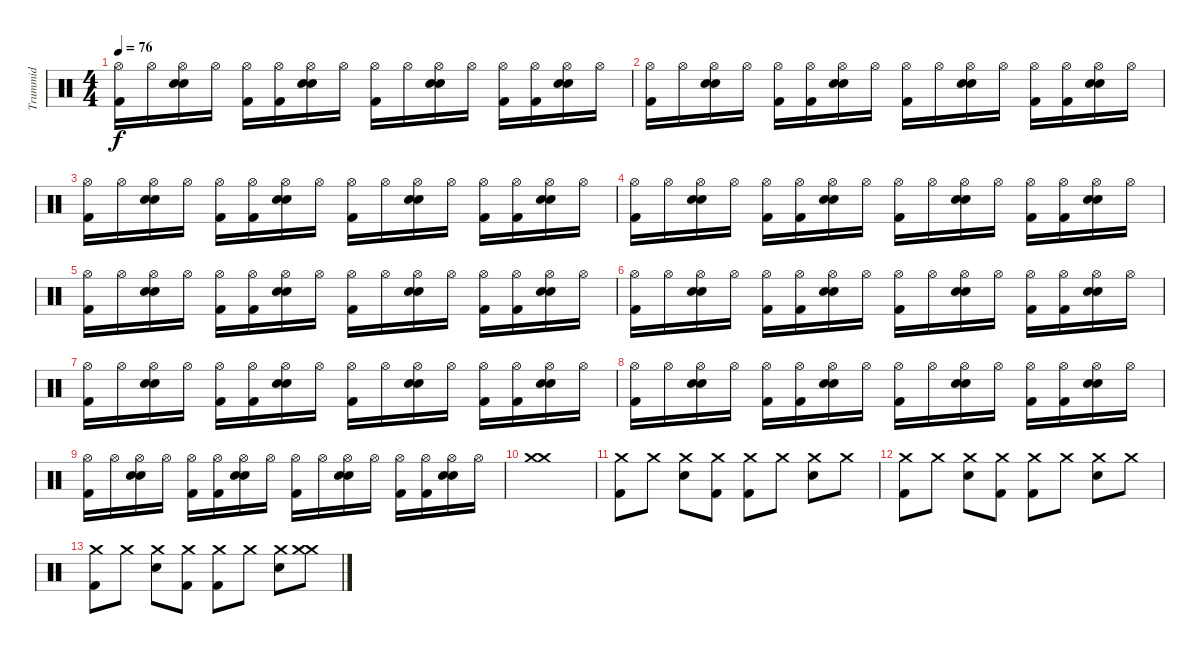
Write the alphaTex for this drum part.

\track ("Trummid" "Trummid") {instrument percussion}
\staff {score}
\articulation defaults
\ts (4 4)
\tempo 76
\clef neutral
\ks c
("Hi-Hat (open)" "Kick (hit) 2").16{dy f} "Hi-Hat (open)".16 ("Hi-Hat (open)" "Electric Snare (hit)" "Snare (hit) 2").16 "Hi-Hat (open)".16 ("Hi-Hat (open)" "Kick (hit) 2").16 ("Hi-Hat (open)" "Kick (hit) 2").16 ("Hi-Hat (open)" "Electric Snare (hit)" "Snare (hit) 2").16 "Hi-Hat (open)".16 ("Hi-Hat (open)" "Kick (hit) 2").16 "Hi-Hat (open)".16 ("Hi-Hat (open)" "Electric Snare (hit)" "Snare (hit) 2").16 "Hi-Hat (open)".16 ("Hi-Hat (open)" "Kick (hit) 2").16 ("Hi-Hat (open)" "Kick (hit) 2").16 ("Hi-Hat (open)" "Electric Snare (hit)" "Snare (hit) 2").16 "Hi-Hat (open)".16 |
("Hi-Hat (open)" "Kick (hit) 2").16 "Hi-Hat (open)".16 ("Hi-Hat (open)" "Electric Snare (hit)" "Snare (hit) 2").16 "Hi-Hat (open)".16 ("Hi-Hat (open)" "Kick (hit) 2").16 ("Hi-Hat (open)" "Kick (hit) 2").16 ("Hi-Hat (open)" "Electric Snare (hit)" "Snare (hit) 2").16 "Hi-Hat (open)".16 ("Hi-Hat (open)" "Kick (hit) 2").16 "Hi-Hat (open)".16 ("Hi-Hat (open)" "Electric Snare (hit)" "Snare (hit) 2").16 "Hi-Hat (open)".16 ("Hi-Hat (open)" "Kick (hit) 2").16 ("Hi-Hat (open)" "Kick (hit) 2").16 ("Hi-Hat (open)" "Electric Snare (hit)" "Snare (hit) 2").16 "Hi-Hat (open)".16 |
("Hi-Hat (open)" "Kick (hit) 2").16 "Hi-Hat (open)".16 ("Hi-Hat (open)" "Electric Snare (hit)" "Snare (hit) 2").16 "Hi-Hat (open)".16 ("Hi-Hat (open)" "Kick (hit) 2").16 ("Hi-Hat (open)" "Kick (hit) 2").16 ("Hi-Hat (open)" "Electric Snare (hit)" "Snare (hit) 2").16 "Hi-Hat (open)".16 ("Hi-Hat (open)" "Kick (hit) 2").16 "Hi-Hat (open)".16 ("Hi-Hat (open)" "Electric Snare (hit)" "Snare (hit) 2").16 "Hi-Hat (open)".16 ("Hi-Hat (open)" "Kick (hit) 2").16 ("Hi-Hat (open)" "Kick (hit) 2").16 ("Hi-Hat (open)" "Electric Snare (hit)" "Snare (hit) 2").16 "Hi-Hat (open)".16 |
("Hi-Hat (open)" "Kick (hit) 2").16 "Hi-Hat (open)".16 ("Hi-Hat (open)" "Electric Snare (hit)" "Snare (hit) 2").16 "Hi-Hat (open)".16 ("Hi-Hat (open)" "Kick (hit) 2").16 ("Hi-Hat (open)" "Kick (hit) 2").16 ("Hi-Hat (open)" "Electric Snare (hit)" "Snare (hit) 2").16 "Hi-Hat (open)".16 ("Hi-Hat (open)" "Kick (hit) 2").16 "Hi-Hat (open)".16 ("Hi-Hat (open)" "Electric Snare (hit)" "Snare (hit) 2").16 "Hi-Hat (open)".16 ("Hi-Hat (open)" "Kick (hit) 2").16 ("Hi-Hat (open)" "Kick (hit) 2").16 ("Hi-Hat (open)" "Electric Snare (hit)" "Snare (hit) 2").16 "Hi-Hat (open)".16 |
("Hi-Hat (open)" "Kick (hit) 2").16 "Hi-Hat (open)".16 ("Hi-Hat (open)" "Electric Snare (hit)" "Snare (hit) 2").16 "Hi-Hat (open)".16 ("Hi-Hat (open)" "Kick (hit) 2").16 ("Hi-Hat (open)" "Kick (hit) 2").16 ("Hi-Hat (open)" "Electric Snare (hit)" "Snare (hit) 2").16 "Hi-Hat (open)".16 ("Hi-Hat (open)" "Kick (hit) 2").16 "Hi-Hat (open)".16 ("Hi-Hat (open)" "Electric Snare (hit)" "Snare (hit) 2").16 "Hi-Hat (open)".16 ("Hi-Hat (open)" "Kick (hit) 2").16 ("Hi-Hat (open)" "Kick (hit) 2").16 ("Hi-Hat (open)" "Electric Snare (hit)" "Snare (hit) 2").16 "Hi-Hat (open)".16 |
("Hi-Hat (open)" "Kick (hit) 2").16 "Hi-Hat (open)".16 ("Hi-Hat (open)" "Electric Snare (hit)" "Snare (hit) 2").16 "Hi-Hat (open)".16 ("Hi-Hat (open)" "Kick (hit) 2").16 ("Hi-Hat (open)" "Kick (hit) 2").16 ("Hi-Hat (open)" "Electric Snare (hit)" "Snare (hit) 2").16 "Hi-Hat (open)".16 ("Hi-Hat (open)" "Kick (hit) 2").16 "Hi-Hat (open)".16 ("Hi-Hat (open)" "Electric Snare (hit)" "Snare (hit) 2").16 "Hi-Hat (open)".16 ("Hi-Hat (open)" "Kick (hit) 2").16 ("Hi-Hat (open)" "Kick (hit) 2").16 ("Hi-Hat (open)" "Electric Snare (hit)" "Snare (hit) 2").16 "Hi-Hat (open)".16 |
("Hi-Hat (open)" "Kick (hit) 2").16 "Hi-Hat (open)".16 ("Hi-Hat (open)" "Electric Snare (hit)" "Snare (hit) 2").16 "Hi-Hat (open)".16 ("Hi-Hat (open)" "Kick (hit) 2").16 ("Hi-Hat (open)" "Kick (hit) 2").16 ("Hi-Hat (open)" "Electric Snare (hit)" "Snare (hit) 2").16 "Hi-Hat (open)".16 ("Hi-Hat (open)" "Kick (hit) 2").16 "Hi-Hat (open)".16 ("Hi-Hat (open)" "Electric Snare (hit)" "Snare (hit) 2").16 "Hi-Hat (open)".16 ("Hi-Hat (open)" "Kick (hit) 2").16 ("Hi-Hat (open)" "Kick (hit) 2").16 ("Hi-Hat (open)" "Electric Snare (hit)" "Snare (hit) 2").16 "Hi-Hat (open)".16 |
("Hi-Hat (open)" "Kick (hit) 2").16 "Hi-Hat (open)".16 ("Hi-Hat (open)" "Electric Snare (hit)" "Snare (hit) 2").16 "Hi-Hat (open)".16 ("Hi-Hat (open)" "Kick (hit) 2").16 ("Hi-Hat (open)" "Kick (hit) 2").16 ("Hi-Hat (open)" "Electric Snare (hit)" "Snare (hit) 2").16 "Hi-Hat (open)".16 ("Hi-Hat (open)" "Kick (hit) 2").16 "Hi-Hat (open)".16 ("Hi-Hat (open)" "Electric Snare (hit)" "Snare (hit) 2").16 "Hi-Hat (open)".16 ("Hi-Hat (open)" "Kick (hit) 2").16 ("Hi-Hat (open)" "Kick (hit) 2").16 ("Hi-Hat (open)" "Electric Snare (hit)" "Snare (hit) 2").16 "Hi-Hat (open)".16 |
("Hi-Hat (open)" "Kick (hit) 2").16 "Hi-Hat (open)".16 ("Hi-Hat (open)" "Electric Snare (hit)" "Snare (hit) 2").16 "Hi-Hat (open)".16 ("Hi-Hat (open)" "Kick (hit) 2").16 ("Hi-Hat (open)" "Kick (hit) 2").16 ("Hi-Hat (open)" "Electric Snare (hit)" "Snare (hit) 2").16 "Hi-Hat (open)".16 ("Hi-Hat (open)" "Kick (hit) 2").16 "Hi-Hat (open)".16 ("Hi-Hat (open)" "Electric Snare (hit)" "Snare (hit) 2").16 "Hi-Hat (open)".16 ("Hi-Hat (open)" "Kick (hit) 2").16 ("Hi-Hat (open)" "Kick (hit) 2").16 ("Hi-Hat (open)" "Electric Snare (hit)" "Snare (hit) 2").16 "Hi-Hat (open)".16 |
("Crash medium (hit)" "Crash medium (hit)").1{volume 6} |
("Crash medium (hit)" "Kick (hit) 2").8 "Crash medium (hit)".8 ("Crash medium (hit)" "Electric Snare (hit)").8 ("Crash medium (hit)" "Kick (hit) 2").8 ("Crash medium (hit)" "Kick (hit) 2").8 "Crash medium (hit)".8 ("Crash medium (hit)" "Electric Snare (hit)").8 "Crash medium (hit)".8 |
("Crash medium (hit)" "Kick (hit) 2").8{volume 0} "Crash medium (hit)".8 ("Crash medium (hit)" "Electric Snare (hit)").8 ("Crash medium (hit)" "Kick (hit) 2").8 ("Crash medium (hit)" "Kick (hit) 2").8 "Crash medium (hit)".8 ("Crash medium (hit)" "Electric Snare (hit)").8 "Crash medium (hit)".8 |
("Crash medium (hit)" "Kick (hit) 2").8 "Crash medium (hit)".8 ("Crash medium (hit)" "Electric Snare (hit)").8 ("Crash medium (hit)" "Kick (hit) 2").8 ("Crash medium (hit)" "Kick (hit) 2").8 "Crash medium (hit)".8 ("Crash medium (hit)" "Electric Snare (hit)").8 ("Crash medium (hit)" "Crash medium (hit)").8
